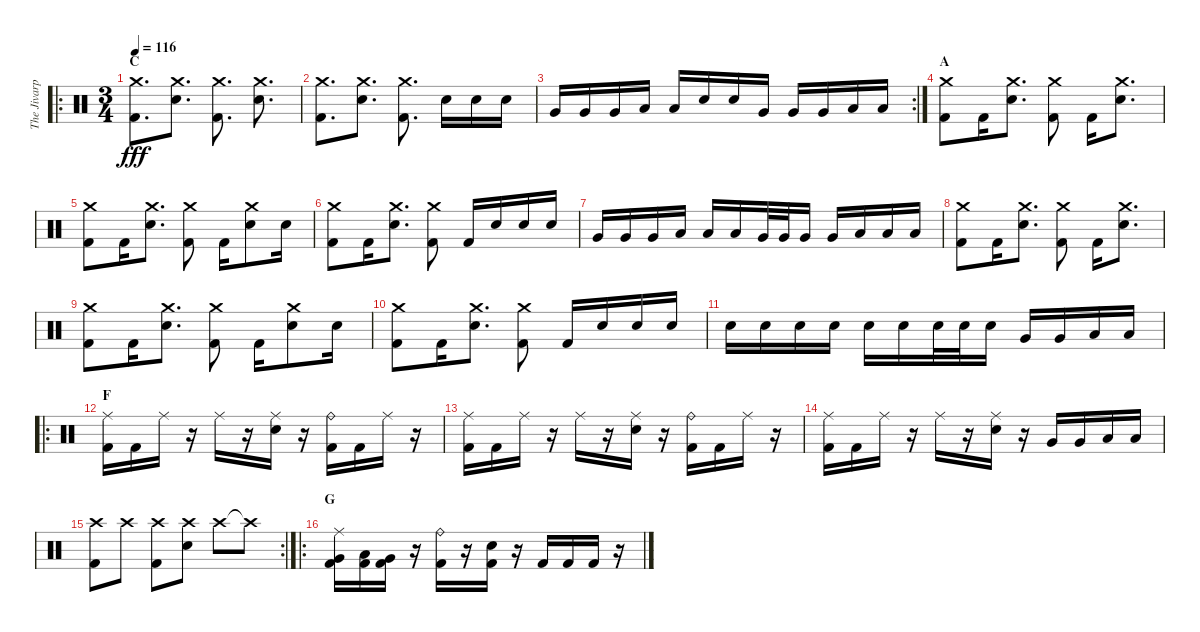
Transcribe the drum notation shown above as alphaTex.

\track ("The Jivarp" "The Jivarp") {instrument percussion}
\staff {score}
\articulation defaults
\ro
\ts (3 4)
\section ("" "C")
\tempo 116
\clef neutral
\ks c
("Crash medium (hit)" "Kick (hit) 2").8{d dy fff} ("Crash medium (hit)" "Electric Snare (hit)").8{d} ("Crash medium (hit)" "Kick (hit) 2").8{d} ("Crash medium (hit)" "Electric Snare (hit)").8{d} |
("Crash medium (hit)" "Kick (hit) 2").8{d} ("Crash medium (hit)" "Electric Snare (hit)").8{d} ("Crash medium (hit)" "Kick (hit) 2").8{d} "Electric Snare (hit)".16 "Electric Snare (hit)".16 "Electric Snare (hit)".16 |
\rc 2 "Very Low Tom (hit)".16 "Very Low Tom (hit)".16 "Very Low Tom (hit)".16 "Low Tom (hit)".16 "Low Tom (hit)".16 "Electric Snare (hit)".16 "Electric Snare (hit)".16 "Very Low Tom (hit)".16 "Very Low Tom (hit)".16 "Very Low Tom (hit)".16 "Low Tom (hit)".16 "Low Tom (hit)".16
|
\section ("" "A")
("Crash medium (hit)" "Kick (hit) 2").8 "Kick (hit) 2".16 ("Crash medium (hit)" "Electric Snare (hit)").8{d} ("Crash medium (hit)" "Kick (hit) 2").8 "Kick (hit) 2".16 ("Crash medium (hit)" "Electric Snare (hit)").8{d} |
("Crash medium (hit)" "Kick (hit) 2").8 "Kick (hit) 2".16 ("Crash medium (hit)" "Electric Snare (hit)").8{d} ("Crash medium (hit)" "Kick (hit) 2").8 "Kick (hit) 2".16 ("Crash medium (hit)" "Electric Snare (hit)").8 "Electric Snare (hit)".16 |
("Crash medium (hit)" "Kick (hit) 2").8 "Kick (hit) 2".16 ("Crash medium (hit)" "Electric Snare (hit)").8{d} ("Crash medium (hit)" "Kick (hit) 2").8 "Kick (hit) 2".16 "Electric Snare (hit)".16 "Electric Snare (hit)".16 "Electric Snare (hit)".16 |
"Very Low Tom (hit)".16 "Very Low Tom (hit)".16 "Very Low Tom (hit)".16 "Low Tom (hit)".16 "Low Tom (hit)".16 "Low Tom (hit)".16 "Very Low Tom (hit)".32 "Very Low Tom (hit)".32 "Very Low Tom (hit)".16 "Very Low Tom (hit)".16 "Low Tom (hit)".16 "Low Tom (hit)".16 "Low Tom (hit)".16 |
("Crash medium (hit)" "Kick (hit) 2").8 "Kick (hit) 2".16 ("Crash medium (hit)" "Electric Snare (hit)").8{d} ("Crash medium (hit)" "Kick (hit) 2").8 "Kick (hit) 2".16 ("Crash medium (hit)" "Electric Snare (hit)").8{d} |
("Crash medium (hit)" "Kick (hit) 2").8 "Kick (hit) 2".16 ("Crash medium (hit)" "Electric Snare (hit)").8{d} ("Crash medium (hit)" "Kick (hit) 2").8 "Kick (hit) 2".16 ("Crash medium (hit)" "Electric Snare (hit)").8 "Electric Snare (hit)".16 |
("Crash medium (hit)" "Kick (hit) 2").8 "Kick (hit) 2".16 ("Crash medium (hit)" "Electric Snare (hit)").8{d} ("Crash medium (hit)" "Kick (hit) 2").8 "Kick (hit) 2".16 "Electric Snare (hit)".16 "Electric Snare (hit)".16 "Electric Snare (hit)".16 |
"Electric Snare (hit)".16 "Electric Snare (hit)".16 "Electric Snare (hit)".16 "Electric Snare (hit)".16 "Electric Snare (hit)".16 "Electric Snare (hit)".16 "Electric Snare (hit)".32 "Electric Snare (hit)".32 "Electric Snare (hit)".16 "Very Low Tom (hit)".16 "Very Low Tom (hit)".16 "Low Tom (hit)".16 "Low Tom (hit)".16 |
\ro
\section ("" "F")
("Ride (middle)" "Kick (hit) 2").16 "Kick (hit) 2".16 "Ride (middle)".16 r.16 "Ride (middle)".16 r.16 ("Ride (middle)" "Electric Snare (hit)").16 r.16 ("Ride (bell)" "Kick (hit) 2").16 "Kick (hit) 2".16 "Ride (middle)".16 r.16 |
("Ride (middle)" "Kick (hit) 2").16 "Kick (hit) 2".16 "Ride (middle)".16 r.16 "Ride (middle)".16 r.16 ("Ride (middle)" "Electric Snare (hit)").16 r.16 ("Ride (bell)" "Kick (hit) 2").16 "Kick (hit) 2".16 "Ride (middle)".16 r.16 |
("Ride (middle)" "Kick (hit) 2").16 "Kick (hit) 2".16 "Ride (middle)".16 r.16 "Ride (middle)".16 r.16 ("Ride (middle)" "Electric Snare (hit)").16 r.16 "Very Low Tom (hit)".16 "Very Low Tom (hit)".16 "Low Tom (hit)".16 "Low Tom (hit)".16 |
\rc 2
("Crash high (hit)" "Kick (hit) 2").8 "Crash high (hit)".8 ("Crash high (hit)" "Kick (hit) 2").8 ("Crash high (hit)" "Electric Snare (hit)").8 "Crash high (hit)".8 "Crash high (hit)"{t}.8 |
\ro
\section ("" "G")
("Ride (middle)" "Very Low Tom (hit)" "Kick (hit) 2").16 ("Low Tom (hit)" "Kick (hit) 2").16 ("Very Low Tom (hit)" "Kick (hit) 2").16 r.16 ("Ride (bell)" "Kick (hit) 2").16 r.16 ("Electric Snare (hit)" "Kick (hit) 2").16 r.16 "Kick (hit) 2".16 "Kick (hit) 2".16 "Kick (hit) 2".16 r.16
